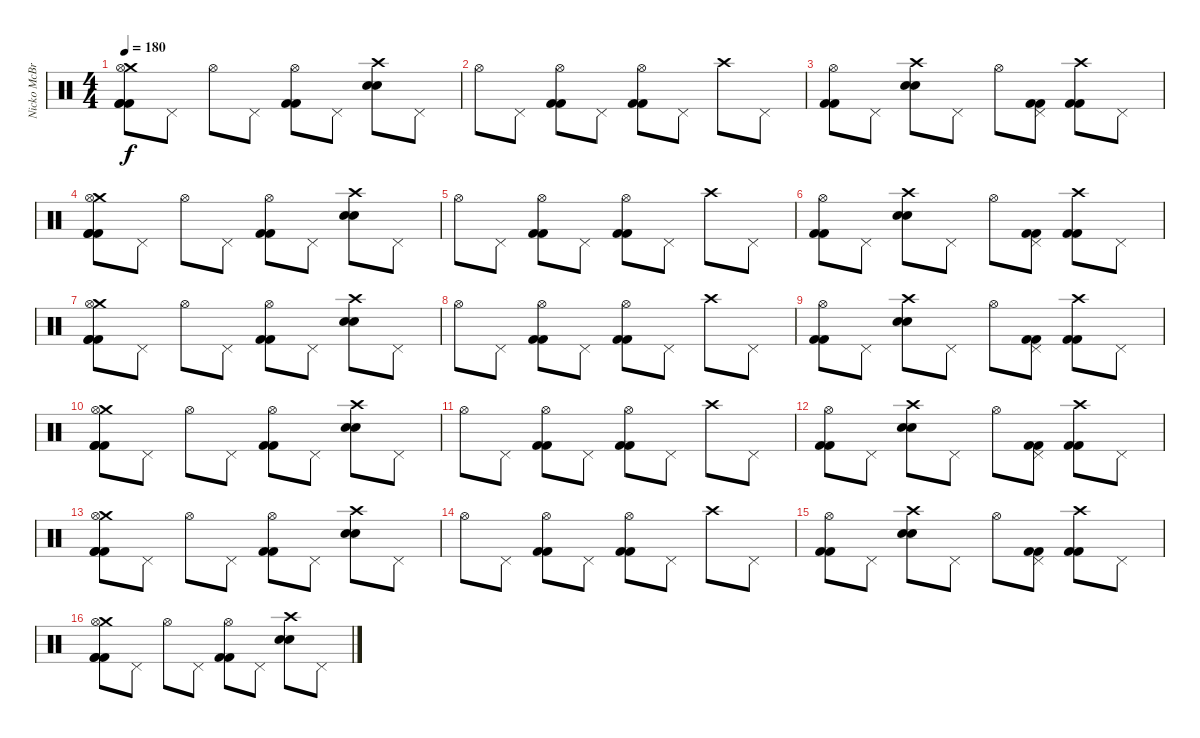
\track ("Nicko McBrain" "Nicko McBr") {instrument percussion}
\staff {score}
\articulation defaults
\ts (4 4)
\tempo 180
\clef neutral
\ks c
("Crash medium (hit)" "Hi-Hat (open)" "Kick (hit) 2" "Kick (hit) 2" "Kick (hit) 2").8{dy f} "Pedal Hi-Hat (hit)".8 "Hi-Hat (open)".8 "Pedal Hi-Hat (hit)".8 ("Hi-Hat (open)" "Kick (hit) 2" "Kick (hit) 2").8 "Pedal Hi-Hat (hit)".8 ("Crash high (hit)" "Snare (hit) 2" "Snare (hit) 2").8 "Pedal Hi-Hat (hit)".8 |
"Hi-Hat (open)".8 "Pedal Hi-Hat (hit)".8 ("Hi-Hat (open)" "Kick (hit) 2" "Kick (hit) 2").8 "Pedal Hi-Hat (hit)".8 ("Hi-Hat (open)" "Kick (hit) 2" "Kick (hit) 2").8 "Pedal Hi-Hat (hit)".8 "Crash high (hit)".8 "Pedal Hi-Hat (hit)".8 |
("Hi-Hat (open)" "Kick (hit) 2" "Kick (hit) 2").8 "Pedal Hi-Hat (hit)".8 ("Crash high (hit)" "Snare (hit) 2" "Snare (hit) 2").8 "Pedal Hi-Hat (hit)".8 "Hi-Hat (open)".8 ("Pedal Hi-Hat (hit)" "Kick (hit) 2" "Kick (hit) 2").8 ("Crash high (hit)" "Kick (hit) 2" "Kick (hit) 2").8 "Pedal Hi-Hat (hit)".8 |
("Crash medium (hit)" "Hi-Hat (open)" "Kick (hit) 2" "Kick (hit) 2" "Kick (hit) 2").8 "Pedal Hi-Hat (hit)".8 "Hi-Hat (open)".8 "Pedal Hi-Hat (hit)".8 ("Hi-Hat (open)" "Kick (hit) 2" "Kick (hit) 2").8 "Pedal Hi-Hat (hit)".8 ("Crash high (hit)" "Snare (hit) 2" "Snare (hit) 2").8 "Pedal Hi-Hat (hit)".8 |
"Hi-Hat (open)".8 "Pedal Hi-Hat (hit)".8 ("Hi-Hat (open)" "Kick (hit) 2" "Kick (hit) 2").8 "Pedal Hi-Hat (hit)".8 ("Hi-Hat (open)" "Kick (hit) 2" "Kick (hit) 2").8 "Pedal Hi-Hat (hit)".8 "Crash high (hit)".8 "Pedal Hi-Hat (hit)".8 |
("Hi-Hat (open)" "Kick (hit) 2" "Kick (hit) 2").8 "Pedal Hi-Hat (hit)".8 ("Crash high (hit)" "Snare (hit) 2" "Snare (hit) 2").8 "Pedal Hi-Hat (hit)".8 "Hi-Hat (open)".8 ("Pedal Hi-Hat (hit)" "Kick (hit) 2" "Kick (hit) 2").8 ("Crash high (hit)" "Kick (hit) 2" "Kick (hit) 2").8 "Pedal Hi-Hat (hit)".8 |
("Crash medium (hit)" "Hi-Hat (open)" "Kick (hit) 2" "Kick (hit) 2" "Kick (hit) 2").8 "Pedal Hi-Hat (hit)".8 "Hi-Hat (open)".8 "Pedal Hi-Hat (hit)".8 ("Hi-Hat (open)" "Kick (hit) 2" "Kick (hit) 2").8 "Pedal Hi-Hat (hit)".8 ("Crash high (hit)" "Snare (hit) 2" "Snare (hit) 2").8 "Pedal Hi-Hat (hit)".8 |
"Hi-Hat (open)".8 "Pedal Hi-Hat (hit)".8 ("Hi-Hat (open)" "Kick (hit) 2" "Kick (hit) 2").8 "Pedal Hi-Hat (hit)".8 ("Hi-Hat (open)" "Kick (hit) 2" "Kick (hit) 2").8 "Pedal Hi-Hat (hit)".8 "Crash high (hit)".8 "Pedal Hi-Hat (hit)".8 |
("Hi-Hat (open)" "Kick (hit) 2" "Kick (hit) 2").8 "Pedal Hi-Hat (hit)".8 ("Crash high (hit)" "Snare (hit) 2" "Snare (hit) 2").8 "Pedal Hi-Hat (hit)".8 "Hi-Hat (open)".8 ("Pedal Hi-Hat (hit)" "Kick (hit) 2" "Kick (hit) 2").8 ("Crash high (hit)" "Kick (hit) 2" "Kick (hit) 2").8 "Pedal Hi-Hat (hit)".8 |
("Crash medium (hit)" "Hi-Hat (open)" "Kick (hit) 2" "Kick (hit) 2" "Kick (hit) 2").8 "Pedal Hi-Hat (hit)".8 "Hi-Hat (open)".8 "Pedal Hi-Hat (hit)".8 ("Hi-Hat (open)" "Kick (hit) 2" "Kick (hit) 2").8 "Pedal Hi-Hat (hit)".8 ("Crash high (hit)" "Snare (hit) 2" "Snare (hit) 2").8 "Pedal Hi-Hat (hit)".8 |
"Hi-Hat (open)".8 "Pedal Hi-Hat (hit)".8 ("Hi-Hat (open)" "Kick (hit) 2" "Kick (hit) 2").8 "Pedal Hi-Hat (hit)".8 ("Hi-Hat (open)" "Kick (hit) 2" "Kick (hit) 2").8 "Pedal Hi-Hat (hit)".8 "Crash high (hit)".8 "Pedal Hi-Hat (hit)".8 |
("Hi-Hat (open)" "Kick (hit) 2" "Kick (hit) 2").8 "Pedal Hi-Hat (hit)".8 ("Crash high (hit)" "Snare (hit) 2" "Snare (hit) 2").8 "Pedal Hi-Hat (hit)".8 "Hi-Hat (open)".8 ("Pedal Hi-Hat (hit)" "Kick (hit) 2" "Kick (hit) 2").8 ("Crash high (hit)" "Kick (hit) 2" "Kick (hit) 2").8 "Pedal Hi-Hat (hit)".8 |
("Crash medium (hit)" "Hi-Hat (open)" "Kick (hit) 2" "Kick (hit) 2" "Kick (hit) 2").8 "Pedal Hi-Hat (hit)".8 "Hi-Hat (open)".8 "Pedal Hi-Hat (hit)".8 ("Hi-Hat (open)" "Kick (hit) 2" "Kick (hit) 2").8 "Pedal Hi-Hat (hit)".8 ("Crash high (hit)" "Snare (hit) 2" "Snare (hit) 2").8 "Pedal Hi-Hat (hit)".8 |
"Hi-Hat (open)".8 "Pedal Hi-Hat (hit)".8 ("Hi-Hat (open)" "Kick (hit) 2" "Kick (hit) 2").8 "Pedal Hi-Hat (hit)".8 ("Hi-Hat (open)" "Kick (hit) 2" "Kick (hit) 2").8 "Pedal Hi-Hat (hit)".8 "Crash high (hit)".8 "Pedal Hi-Hat (hit)".8 |
("Hi-Hat (open)" "Kick (hit) 2" "Kick (hit) 2").8 "Pedal Hi-Hat (hit)".8 ("Crash high (hit)" "Snare (hit) 2" "Snare (hit) 2").8 "Pedal Hi-Hat (hit)".8 "Hi-Hat (open)".8 ("Pedal Hi-Hat (hit)" "Kick (hit) 2" "Kick (hit) 2").8 ("Crash high (hit)" "Kick (hit) 2" "Kick (hit) 2").8 "Pedal Hi-Hat (hit)".8 |
("Crash medium (hit)" "Hi-Hat (open)" "Kick (hit) 2" "Kick (hit) 2" "Kick (hit) 2").8 "Pedal Hi-Hat (hit)".8 "Hi-Hat (open)".8 "Pedal Hi-Hat (hit)".8 ("Hi-Hat (open)" "Kick (hit) 2" "Kick (hit) 2").8 "Pedal Hi-Hat (hit)".8 ("Crash high (hit)" "Snare (hit) 2" "Snare (hit) 2").8 "Pedal Hi-Hat (hit)".8
